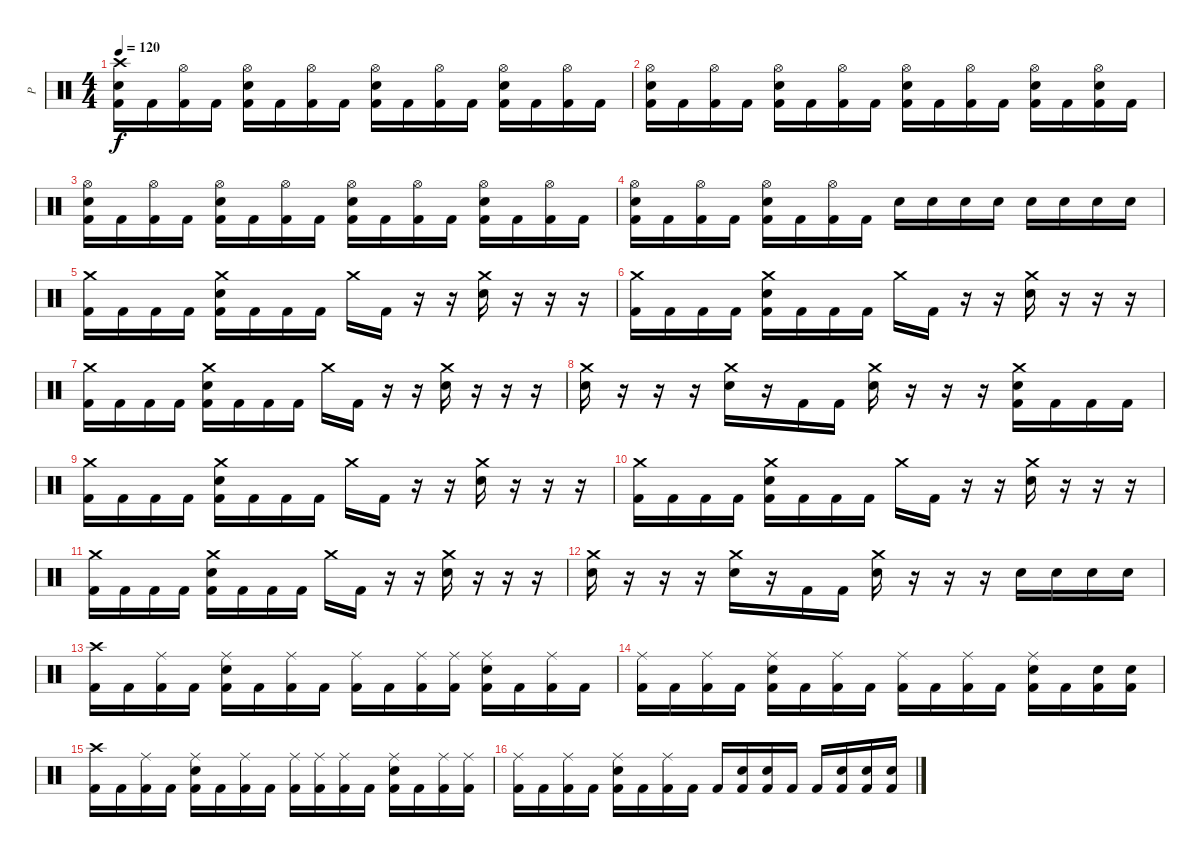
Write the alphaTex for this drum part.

\track ("P" "P") {instrument percussion}
\staff {score}
\articulation defaults
\ts (4 4)
\tempo 120
\clef neutral
\ks c
("Crash high (hit)" "Electric Snare (hit)" "Kick (hit) 2").16{dy f} "Kick (hit) 2".16 ("Hi-Hat (open)" "Kick (hit) 2").16 "Kick (hit) 2".16 ("Hi-Hat (open)" "Electric Snare (hit)" "Kick (hit) 2").16 "Kick (hit) 2".16 ("Hi-Hat (open)" "Kick (hit) 2").16 "Kick (hit) 2".16 ("Hi-Hat (open)" "Electric Snare (hit)" "Kick (hit) 2").16 "Kick (hit) 2".16 ("Hi-Hat (open)" "Kick (hit) 2").16 "Kick (hit) 2".16 ("Hi-Hat (open)" "Electric Snare (hit)" "Kick (hit) 2").16 "Kick (hit) 2".16 ("Hi-Hat (open)" "Kick (hit) 2").16 "Kick (hit) 2".16 |
("Hi-Hat (open)" "Electric Snare (hit)" "Kick (hit) 2").16 "Kick (hit) 2".16 ("Hi-Hat (open)" "Kick (hit) 2").16 "Kick (hit) 2".16 ("Hi-Hat (open)" "Electric Snare (hit)" "Kick (hit) 2").16 "Kick (hit) 2".16 ("Hi-Hat (open)" "Kick (hit) 2").16 "Kick (hit) 2".16 ("Hi-Hat (open)" "Electric Snare (hit)" "Kick (hit) 2").16 "Kick (hit) 2".16 ("Hi-Hat (open)" "Kick (hit) 2").16 "Kick (hit) 2".16 ("Hi-Hat (open)" "Electric Snare (hit)" "Kick (hit) 2").16 "Kick (hit) 2".16 ("Hi-Hat (open)" "Electric Snare (hit)" "Kick (hit) 2").16 "Kick (hit) 2".16 |
("Hi-Hat (open)" "Electric Snare (hit)" "Kick (hit) 2").16 "Kick (hit) 2".16 ("Hi-Hat (open)" "Kick (hit) 2").16 "Kick (hit) 2".16 ("Hi-Hat (open)" "Electric Snare (hit)" "Kick (hit) 2").16 "Kick (hit) 2".16 ("Hi-Hat (open)" "Kick (hit) 2").16 "Kick (hit) 2".16 ("Hi-Hat (open)" "Electric Snare (hit)" "Kick (hit) 2").16 "Kick (hit) 2".16 ("Hi-Hat (open)" "Kick (hit) 2").16 "Kick (hit) 2".16 ("Hi-Hat (open)" "Electric Snare (hit)" "Kick (hit) 2").16 "Kick (hit) 2".16 ("Hi-Hat (open)" "Kick (hit) 2").16 "Kick (hit) 2".16 |
("Hi-Hat (open)" "Electric Snare (hit)" "Kick (hit) 2").16 "Kick (hit) 2".16 ("Hi-Hat (open)" "Kick (hit) 2").16 "Kick (hit) 2".16 ("Hi-Hat (open)" "Electric Snare (hit)" "Kick (hit) 2").16 "Kick (hit) 2".16 ("Hi-Hat (open)" "Kick (hit) 2").16 "Kick (hit) 2".16 "Electric Snare (hit)".16 "Electric Snare (hit)".16 "Electric Snare (hit)".16 "Electric Snare (hit)".16 "Electric Snare (hit)".16 "Electric Snare (hit)".16 "Electric Snare (hit)".16 "Electric Snare (hit)".16 |
("Crash medium (hit)" "Kick (hit) 2").16 "Kick (hit) 2".16 "Kick (hit) 2".16 "Kick (hit) 2".16 ("Crash medium (hit)" "Electric Snare (hit)" "Kick (hit) 2").16 "Kick (hit) 2".16 "Kick (hit) 2".16 "Kick (hit) 2".16 "Crash medium (hit)".16 "Kick (hit) 2".16 r.16 r.16 ("Crash medium (hit)" "Electric Snare (hit)").16 r.16 r.16 r.16 |
("Crash medium (hit)" "Kick (hit) 2").16 "Kick (hit) 2".16 "Kick (hit) 2".16 "Kick (hit) 2".16 ("Crash medium (hit)" "Electric Snare (hit)" "Kick (hit) 2").16 "Kick (hit) 2".16 "Kick (hit) 2".16 "Kick (hit) 2".16 "Crash medium (hit)".16 "Kick (hit) 2".16 r.16 r.16 ("Crash medium (hit)" "Electric Snare (hit)").16 r.16 r.16 r.16 |
("Crash medium (hit)" "Kick (hit) 2").16 "Kick (hit) 2".16 "Kick (hit) 2".16 "Kick (hit) 2".16 ("Crash medium (hit)" "Electric Snare (hit)" "Kick (hit) 2").16 "Kick (hit) 2".16 "Kick (hit) 2".16 "Kick (hit) 2".16 "Crash medium (hit)".16 "Kick (hit) 2".16 r.16 r.16 ("Crash medium (hit)" "Electric Snare (hit)").16 r.16 r.16 r.16 |
("Crash medium (hit)" "Electric Snare (hit)").16 r.16 r.16 r.16 ("Crash medium (hit)" "Electric Snare (hit)").16 r.16 "Kick (hit) 2".16 "Kick (hit) 2".16 ("Crash medium (hit)" "Electric Snare (hit)").16 r.16 r.16 r.16 ("Crash medium (hit)" "Electric Snare (hit)" "Kick (hit) 2").16 "Kick (hit) 2".16 "Kick (hit) 2".16 "Kick (hit) 2".16 |
("Crash medium (hit)" "Kick (hit) 2").16 "Kick (hit) 2".16 "Kick (hit) 2".16 "Kick (hit) 2".16 ("Crash medium (hit)" "Electric Snare (hit)" "Kick (hit) 2").16 "Kick (hit) 2".16 "Kick (hit) 2".16 "Kick (hit) 2".16 "Crash medium (hit)".16 "Kick (hit) 2".16 r.16 r.16 ("Crash medium (hit)" "Electric Snare (hit)").16 r.16 r.16 r.16 |
("Crash medium (hit)" "Kick (hit) 2").16 "Kick (hit) 2".16 "Kick (hit) 2".16 "Kick (hit) 2".16 ("Crash medium (hit)" "Electric Snare (hit)" "Kick (hit) 2").16 "Kick (hit) 2".16 "Kick (hit) 2".16 "Kick (hit) 2".16 "Crash medium (hit)".16 "Kick (hit) 2".16 r.16 r.16 ("Crash medium (hit)" "Electric Snare (hit)").16 r.16 r.16 r.16 |
("Crash medium (hit)" "Kick (hit) 2").16 "Kick (hit) 2".16 "Kick (hit) 2".16 "Kick (hit) 2".16 ("Crash medium (hit)" "Electric Snare (hit)" "Kick (hit) 2").16 "Kick (hit) 2".16 "Kick (hit) 2".16 "Kick (hit) 2".16 "Crash medium (hit)".16 "Kick (hit) 2".16 r.16 r.16 ("Crash medium (hit)" "Electric Snare (hit)").16 r.16 r.16 r.16 |
("Crash medium (hit)" "Electric Snare (hit)").16 r.16 r.16 r.16 ("Crash medium (hit)" "Electric Snare (hit)").16 r.16 "Kick (hit) 2".16 "Kick (hit) 2".16 ("Crash medium (hit)" "Electric Snare (hit)").16 r.16 r.16 r.16 "Electric Snare (hit)".16 "Electric Snare (hit)".16 "Electric Snare (hit)".16 "Electric Snare (hit)".16 |
("Crash high (hit)" "Kick (hit) 2").16 "Kick (hit) 2".16 ("Ride (middle)" "Kick (hit) 2").16 "Kick (hit) 2".16 ("Ride (middle)" "Electric Snare (hit)" "Kick (hit) 2").16 "Kick (hit) 2".16 ("Ride (middle)" "Kick (hit) 2").16 "Kick (hit) 2".16 ("Ride (middle)" "Kick (hit) 2").16 "Kick (hit) 2".16 ("Ride (middle)" "Kick (hit) 2").16 ("Ride (middle)" "Kick (hit) 2").16 ("Ride (middle)" "Electric Snare (hit)" "Kick (hit) 2").16 "Kick (hit) 2".16 ("Ride (middle)" "Kick (hit) 2").16 "Kick (hit) 2".16 |
("Ride (middle)" "Kick (hit) 2").16 "Kick (hit) 2".16 ("Ride (middle)" "Kick (hit) 2").16 "Kick (hit) 2".16 ("Ride (middle)" "Electric Snare (hit)" "Kick (hit) 2").16 "Kick (hit) 2".16 ("Ride (middle)" "Kick (hit) 2").16 "Kick (hit) 2".16 ("Ride (middle)" "Kick (hit) 2").16 "Kick (hit) 2".16 ("Ride (middle)" "Kick (hit) 2").16 "Kick (hit) 2".16 ("Ride (middle)" "Electric Snare (hit)" "Kick (hit) 2").16 "Kick (hit) 2".16 ("Electric Snare (hit)" "Kick (hit) 2").16 ("Electric Snare (hit)" "Kick (hit) 2").16 |
("Crash high (hit)" "Kick (hit) 2").16 "Kick (hit) 2".16 ("Ride (middle)" "Kick (hit) 2").16 "Kick (hit) 2".16 ("Ride (middle)" "Electric Snare (hit)" "Kick (hit) 2").16 "Kick (hit) 2".16 ("Ride (middle)" "Kick (hit) 2").16 "Kick (hit) 2".16 ("Ride (middle)" "Kick (hit) 2").16 ("Ride (middle)" "Kick (hit) 2").16 ("Ride (middle)" "Kick (hit) 2").16 "Kick (hit) 2".16 ("Ride (middle)" "Electric Snare (hit)" "Kick (hit) 2").16 "Kick (hit) 2".16 ("Ride (middle)" "Kick (hit) 2").16 ("Ride (middle)" "Kick (hit) 2").16 |
("Ride (middle)" "Kick (hit) 2").16 "Kick (hit) 2".16 ("Ride (middle)" "Kick (hit) 2").16 "Kick (hit) 2".16 ("Ride (middle)" "Electric Snare (hit)" "Kick (hit) 2").16 "Kick (hit) 2".16 ("Ride (middle)" "Kick (hit) 2").16 "Kick (hit) 2".16 "Kick (hit) 2".16 ("Electric Snare (hit)" "Kick (hit) 2").16 ("Electric Snare (hit)" "Kick (hit) 2").16 "Kick (hit) 2".16 "Kick (hit) 2".16 ("Electric Snare (hit)" "Kick (hit) 2").16 ("Electric Snare (hit)" "Kick (hit) 2").16 ("Electric Snare (hit)" "Kick (hit) 2").16
